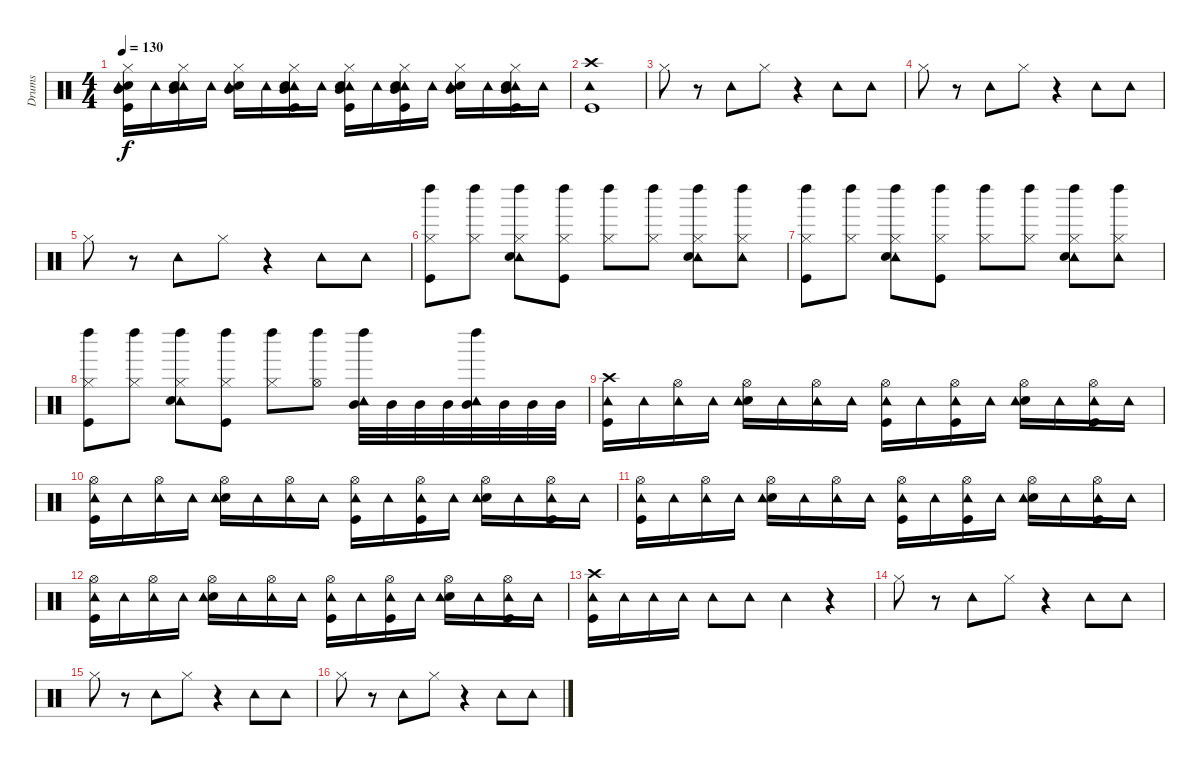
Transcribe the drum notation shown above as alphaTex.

\track ("Drums" "Drums") {instrument percussion}
\staff {score}
\articulation defaults
\ts (4 4)
\tempo 130
\clef neutral
\ks c
("Mid Tom (hit)" "Snare (hit) 2" "Tambourine (hit)" "Kick (hit)" "Hi-Hat (closed)").16{dy f} "Tambourine (hit)".16 ("Hi-Hat (closed)" "Tambourine (hit)" "Snare (hit) 2" "Mid Tom (hit)").16 "Tambourine (hit)".16 ("Hi-Hat (closed)" "Snare (hit) 2" "Tambourine (hit)" "Mid Tom (hit)").16 "Tambourine (hit)".16 ("Hi-Hat (closed)" "Kick (hit)" "Tambourine (hit)" "Snare (hit) 2" "Mid Tom (hit)").16 "Tambourine (hit)".16 ("Hi-Hat (closed)" "Kick (hit)" "Tambourine (hit)" "Snare (hit) 2" "Mid Tom (hit)").16 "Tambourine (hit)".16 ("Hi-Hat (closed)" "Kick (hit)" "Tambourine (hit)" "Snare (hit) 2" "Mid Tom (hit)").16 "Tambourine (hit)".16 ("Hi-Hat (closed)" "Snare (hit) 2" "Tambourine (hit)" "Mid Tom (hit)").16 "Tambourine (hit)".16 ("Hi-Hat (closed)" "Kick (hit)" "Tambourine (hit)" "Snare (hit) 2" "Mid Tom (hit)").16 "Tambourine (hit)".16 |
("Crash high (hit)" "Tambourine (hit)" "Kick (hit)").1 |
"Hi-Hat (closed)".8 r.8 "Tambourine (hit)".8 "Hi-Hat (closed)".8 r.4 "Tambourine (hit)".8 "Tambourine (hit)".8 |
"Hi-Hat (closed)".8 r.8 "Tambourine (hit)".8 "Hi-Hat (closed)".8 r.4 "Tambourine (hit)".8 "Tambourine (hit)".8 |
"Hi-Hat (closed)".8 r.8 "Tambourine (hit)".8 "Hi-Hat (closed)".8 r.4 "Tambourine (hit)".8 "Tambourine (hit)".8 |
("Hi-Hat (closed)" "Kick (hit)" "Left Maraca (hit)").8 ("Hi-Hat (closed)" "Left Maraca (hit)").8 ("Tambourine (hit)" "Hi-Hat (closed)" "Snare (hit) 2" "Left Maraca (hit)").8 ("Hi-Hat (closed)" "Kick (hit)" "Left Maraca (hit)").8 ("Hi-Hat (closed)" "Left Maraca (hit)").8 ("Hi-Hat (closed)" "Left Maraca (hit)").8 ("Tambourine (hit)" "Hi-Hat (closed)" "Snare (hit) 2" "Left Maraca (hit)").8 ("Tambourine (hit)" "Hi-Hat (closed)" "Left Maraca (hit)").8 |
("Left Maraca (hit)" "Kick (hit)" "Hi-Hat (closed)").8 ("Hi-Hat (closed)" "Left Maraca (hit)").8 ("Tambourine (hit)" "Hi-Hat (closed)" "Snare (hit) 2" "Left Maraca (hit)").8 ("Hi-Hat (closed)" "Kick (hit)" "Left Maraca (hit)").8 ("Hi-Hat (closed)" "Left Maraca (hit)").8 ("Hi-Hat (closed)" "Left Maraca (hit)").8 ("Tambourine (hit)" "Hi-Hat (closed)" "Snare (hit) 2" "Left Maraca (hit)").8 ("Tambourine (hit)" "Hi-Hat (closed)" "Left Maraca (hit)").8 |
("Left Maraca (hit)" "Kick (hit)" "Hi-Hat (closed)").8 ("Hi-Hat (closed)" "Left Maraca (hit)").8 ("Tambourine (hit)" "Hi-Hat (closed)" "Snare (hit) 2" "Left Maraca (hit)").8 ("Hi-Hat (closed)" "Kick (hit)" "Left Maraca (hit)").8 ("Left Maraca (hit)" "Hi-Hat (closed)").8 ("Left Maraca (hit)" "Hi-Hat (open)").8 ("Tambourine (hit)" "Left Maraca (hit)" "Mid Tom (hit)").32 "Mid Tom (hit)".32 "Mid Tom (hit)".32 "Mid Tom (hit)".32 ("Tambourine (hit)" "Left Maraca (hit)" "Mid Tom (hit)").32 "Mid Tom (hit)".32 "Mid Tom (hit)".32 "Mid Tom (hit)".32 |
("Crash high (hit)" "Kick (hit)" "Tambourine (hit)").16 "Tambourine (hit)".16 ("Hi-Hat (open)" "Tambourine (hit)").16 "Tambourine (hit)".16 ("Hi-Hat (open)" "Snare (hit) 2" "Tambourine (hit)").16 "Tambourine (hit)".16 ("Hi-Hat (open)" "Tambourine (hit)").16 "Tambourine (hit)".16 ("Hi-Hat (open)" "Kick (hit)" "Tambourine (hit)").16 "Tambourine (hit)".16 ("Hi-Hat (open)" "Kick (hit)" "Tambourine (hit)").16 "Tambourine (hit)".16 ("Hi-Hat (open)" "Snare (hit) 2" "Tambourine (hit)").16 "Tambourine (hit)".16 ("Hi-Hat (open)" "Kick (hit)" "Tambourine (hit)").16 "Tambourine (hit)".16 |
("Tambourine (hit)" "Kick (hit)" "Hi-Hat (open)").16 "Tambourine (hit)".16 ("Hi-Hat (open)" "Tambourine (hit)").16 "Tambourine (hit)".16 ("Hi-Hat (open)" "Snare (hit) 2" "Tambourine (hit)").16 "Tambourine (hit)".16 ("Hi-Hat (open)" "Tambourine (hit)").16 "Tambourine (hit)".16 ("Hi-Hat (open)" "Kick (hit)" "Tambourine (hit)").16 "Tambourine (hit)".16 ("Hi-Hat (open)" "Kick (hit)" "Tambourine (hit)").16 "Tambourine (hit)".16 ("Hi-Hat (open)" "Snare (hit) 2" "Tambourine (hit)").16 "Tambourine (hit)".16 ("Hi-Hat (open)" "Kick (hit)" "Tambourine (hit)").16 "Tambourine (hit)".16 |
("Hi-Hat (open)" "Kick (hit)" "Tambourine (hit)").16 "Tambourine (hit)".16 ("Hi-Hat (open)" "Tambourine (hit)").16 "Tambourine (hit)".16 ("Hi-Hat (open)" "Snare (hit) 2" "Tambourine (hit)").16 "Tambourine (hit)".16 ("Hi-Hat (open)" "Tambourine (hit)").16 "Tambourine (hit)".16 ("Hi-Hat (open)" "Kick (hit)" "Tambourine (hit)").16 "Tambourine (hit)".16 ("Hi-Hat (open)" "Kick (hit)" "Tambourine (hit)").16 "Tambourine (hit)".16 ("Hi-Hat (open)" "Snare (hit) 2" "Tambourine (hit)").16 "Tambourine (hit)".16 ("Hi-Hat (open)" "Kick (hit)" "Tambourine (hit)").16 "Tambourine (hit)".16 |
("Hi-Hat (open)" "Kick (hit)" "Tambourine (hit)").16 "Tambourine (hit)".16 ("Hi-Hat (open)" "Tambourine (hit)").16 "Tambourine (hit)".16 ("Hi-Hat (open)" "Snare (hit) 2" "Tambourine (hit)").16 "Tambourine (hit)".16 ("Hi-Hat (open)" "Tambourine (hit)").16 "Tambourine (hit)".16 ("Hi-Hat (open)" "Kick (hit)" "Tambourine (hit)").16 "Tambourine (hit)".16 ("Hi-Hat (open)" "Kick (hit)" "Tambourine (hit)").16 "Tambourine (hit)".16 ("Hi-Hat (open)" "Snare (hit) 2" "Tambourine (hit)").16 "Tambourine (hit)".16 ("Hi-Hat (open)" "Kick (hit)" "Tambourine (hit)").16 "Tambourine (hit)".16 |
("Tambourine (hit)" "Crash high (hit)" "Kick (hit)").16 "Tambourine (hit)".16 "Tambourine (hit)".16 "Tambourine (hit)".16 "Tambourine (hit)".8 "Tambourine (hit)".8 "Tambourine (hit)".4 r.4 |
"Hi-Hat (closed)".8 r.8 "Tambourine (hit)".8 "Hi-Hat (closed)".8 r.4 "Tambourine (hit)".8 "Tambourine (hit)".8 |
"Hi-Hat (closed)".8 r.8 "Tambourine (hit)".8 "Hi-Hat (closed)".8 r.4 "Tambourine (hit)".8 "Tambourine (hit)".8 |
"Hi-Hat (closed)".8 r.8 "Tambourine (hit)".8 "Hi-Hat (closed)".8 r.4 "Tambourine (hit)".8 "Tambourine (hit)".8
